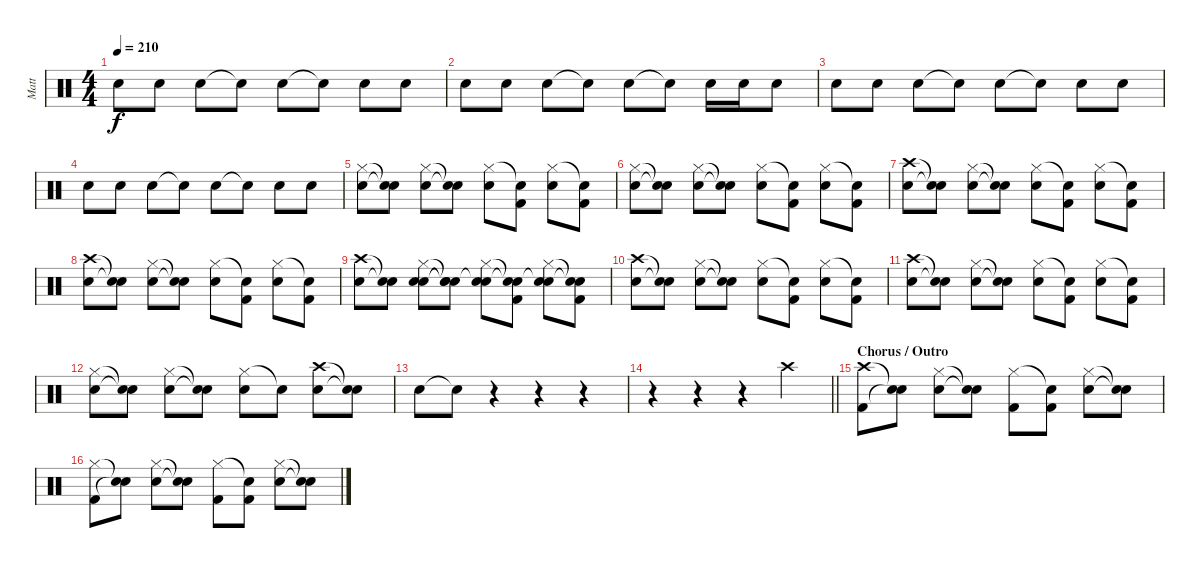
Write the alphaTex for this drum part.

\track ("Matt" "Matt") {instrument percussion}
\staff {score}
\articulation defaults
\ts (4 4)
\tempo 210
\clef neutral
\ks c "Snare (hit) 2".8{dy f} "Snare (hit) 2".8 "Snare (hit) 2".8 "Snare (hit)"{t}.8 "Snare (hit) 2".8 "Snare (hit)"{t}.8 "Snare (hit) 2".8 "Snare (hit) 2".8
|
"Snare (hit) 2".8 "Snare (hit) 2".8 "Snare (hit) 2".8 "Snare (hit)"{t}.8 "Snare (hit) 2".8 "Snare (hit)"{t}.8 "Snare (hit) 2".16 "Snare (hit) 2".16 "Snare (hit) 2".8 |
"Snare (hit) 2".8 "Snare (hit) 2".8 "Snare (hit) 2".8 "Snare (hit)"{t}.8 "Snare (hit) 2".8 "Snare (hit)"{t}.8 "Snare (hit) 2".8 "Snare (hit) 2".8 |
"Snare (hit) 2".8 "Snare (hit) 2".8 "Snare (hit) 2".8 "Snare (hit)"{t}.8 "Snare (hit) 2".8 "Snare (hit)"{t}.8 "Snare (hit) 2".8 "Snare (hit) 2".8 |
("Hi-Hat (closed)" "Snare (hit) 2").8 ("Snare (hit)"{t} "Snare (hit)"{t}).8 ("Hi-Hat (closed)" "Snare (hit) 2").8 ("Snare (hit)"{t} "Snare (hit)"{t}).8 ("Hi-Hat (closed)" "Snare (hit) 2").8 ("Snare (hit)"{t} "Kick (hit) 2").8 ("Hi-Hat (closed)" "Snare (hit) 2").8 ("Snare (hit)"{t} "Kick (hit) 2").8 |
("Hi-Hat (closed)" "Snare (hit) 2").8 ("Snare (hit)"{t} "Snare (hit)"{t}).8 ("Hi-Hat (closed)" "Snare (hit) 2").8 ("Snare (hit)"{t} "Snare (hit)"{t}).8 ("Hi-Hat (closed)" "Snare (hit) 2").8 ("Snare (hit)"{t} "Kick (hit) 2").8 ("Hi-Hat (closed)" "Snare (hit) 2").8 ("Snare (hit)"{t} "Kick (hit) 2").8 |
("Crash high (hit)" "Snare (hit) 2").8 ("Snare (hit)"{t} "Snare (hit)"{t}).8 ("Hi-Hat (closed)" "Snare (hit) 2").8 ("Snare (hit)"{t} "Snare (hit)"{t}).8 ("Hi-Hat (closed)" "Snare (hit) 2").8 ("Snare (hit)"{t} "Kick (hit) 2").8 ("Hi-Hat (closed)" "Snare (hit) 2").8 ("Snare (hit)"{t} "Kick (hit) 2").8 |
("Crash high (hit)" "Snare (hit) 2").8 ("Snare (hit)"{t} "Snare (hit)"{t}).8 ("Hi-Hat (closed)" "Snare (hit) 2").8 ("Snare (hit)"{t} "Snare (hit)"{t}).8 ("Hi-Hat (closed)" "Snare (hit) 2").8 ("Snare (hit)"{t} "Kick (hit) 2").8 ("Hi-Hat (closed)" "Snare (hit) 2").8 ("Snare (hit)"{t} "Kick (hit) 2").8 |
("Snare (hit) 2" "Crash high (hit)").8 ("Snare (hit)"{t} "Snare (hit)"{t}).8 ("Hi-Hat (closed)" "Snare (hit) 2" "Snare (hit)").8 ("Snare (hit)"{t} "Snare (hit)"{t} "Snare (hit)"{t}).8 ("Hi-Hat (closed)" "Snare (hit) 2" "Snare (hit)"{t}).8 ("Snare (hit)"{t} "Kick (hit) 2" "Snare (hit)"{t}).8 ("Hi-Hat (closed)" "Snare (hit) 2" "Snare (hit)"{t}).8 ("Snare (hit)"{t} "Kick (hit) 2" "Snare (hit)"{t}).8 |
("Crash high (hit)" "Snare (hit) 2").8 ("Snare (hit)"{t} "Snare (hit)"{t}).8 ("Hi-Hat (closed)" "Snare (hit) 2").8 ("Snare (hit)"{t} "Snare (hit)"{t}).8 ("Hi-Hat (closed)" "Snare (hit) 2").8 ("Snare (hit)"{t} "Kick (hit) 2").8 ("Hi-Hat (closed)" "Snare (hit) 2").8 ("Snare (hit)"{t} "Kick (hit) 2").8 |
("Crash high (hit)" "Snare (hit) 2").8 ("Snare (hit)"{t} "Snare (hit)"{t}).8 ("Hi-Hat (closed)" "Snare (hit) 2").8 ("Snare (hit)"{t} "Snare (hit)"{t}).8 ("Hi-Hat (closed)" "Snare (hit) 2").8 ("Snare (hit)"{t} "Kick (hit) 2").8 ("Hi-Hat (closed)" "Snare (hit) 2").8 ("Snare (hit)"{t} "Kick (hit) 2").8 |
("Hi-Hat (closed)" "Snare (hit) 2").8 ("Snare (hit)"{t} "Snare (hit)"{t}).8 ("Hi-Hat (closed)" "Snare (hit) 2").8 ("Snare (hit)"{t} "Snare (hit)"{t}).8 ("Hi-Hat (closed)" "Snare (hit) 2").8 "Snare (hit)"{t}.8 ("Crash high (hit)" "Snare (hit) 2").8 ("Snare (hit)"{t} "Snare (hit)"{t}).8 |
"Snare (hit) 2".8 "Snare (hit)"{t}.8 r.4 r.4 r.4 |
\barLineRight lightlight
r.4 r.4 r.4 "Crash high (hit)".4 |
\section ("" "Chorus / Outro")
("Crash high (hit)" "Kick (hit) 2").8 ("Snare (hit)"{t} "Snare (hit)"{t}).8 ("Hi-Hat (closed)" "Snare (hit) 2").8 ("Snare (hit)"{t} "Snare (hit)"{t}).8 ("Hi-Hat (closed)" "Kick (hit) 2").8 ("Snare (hit)"{t} "Kick (hit) 2").8 ("Hi-Hat (closed)" "Snare (hit) 2").8 ("Snare (hit)"{t} "Snare (hit)"{t}).8 |
("Hi-Hat (closed)" "Kick (hit) 2").8 ("Snare (hit)"{t} "Snare (hit)"{t}).8 ("Hi-Hat (closed)" "Snare (hit) 2").8 ("Snare (hit)"{t} "Snare (hit)"{t}).8 ("Hi-Hat (closed)" "Kick (hit) 2").8 ("Snare (hit)"{t} "Kick (hit) 2").8 ("Hi-Hat (closed)" "Snare (hit) 2").8 ("Snare (hit)"{t} "Snare (hit)"{t}).8
